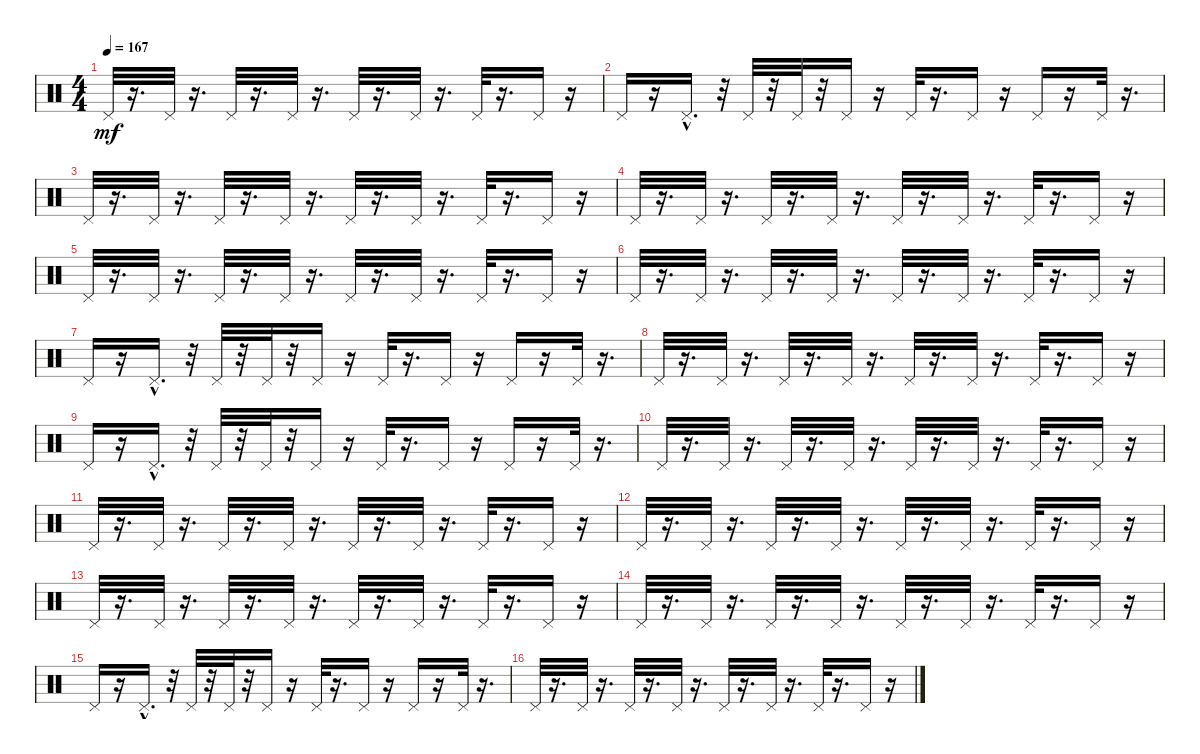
\track "" {instrument percussion}
\staff {score}
\articulation defaults
\ts (4 4)
\tempo 167
\clef neutral
\ks c "Pedal Hi-Hat (hit)".32{dy mf}
r.16{d} "Pedal Hi-Hat (hit)".32 r.16{d} "Pedal Hi-Hat (hit)".32 r.16{d} "Pedal Hi-Hat (hit)".32 r.16{d} "Pedal Hi-Hat (hit)".32 r.16{d} "Pedal Hi-Hat (hit)".32 r.16{d} "Pedal Hi-Hat (hit)".32 r.16{d} "Pedal Hi-Hat (hit)".16 r.16 |
"Pedal Hi-Hat (hit)".16 r.16 "Pedal Hi-Hat (hit)"{hac}.16{d} r.32 "Pedal Hi-Hat (hit)".32 r.32 "Pedal Hi-Hat (hit)".32 r.32 "Pedal Hi-Hat (hit)".16 r.16 "Pedal Hi-Hat (hit)".32 r.16{d} "Pedal Hi-Hat (hit)".16 r.16 "Pedal Hi-Hat (hit)".16 r.16 "Pedal Hi-Hat (hit)".32 r.16{d} |
"Pedal Hi-Hat (hit)".32 r.16{d} "Pedal Hi-Hat (hit)".32 r.16{d} "Pedal Hi-Hat (hit)".32 r.16{d} "Pedal Hi-Hat (hit)".32 r.16{d} "Pedal Hi-Hat (hit)".32 r.16{d} "Pedal Hi-Hat (hit)".32 r.16{d} "Pedal Hi-Hat (hit)".32 r.16{d} "Pedal Hi-Hat (hit)".16 r.16 |
"Pedal Hi-Hat (hit)".32 r.16{d} "Pedal Hi-Hat (hit)".32 r.16{d} "Pedal Hi-Hat (hit)".32 r.16{d} "Pedal Hi-Hat (hit)".32 r.16{d} "Pedal Hi-Hat (hit)".32 r.16{d} "Pedal Hi-Hat (hit)".32 r.16{d} "Pedal Hi-Hat (hit)".32 r.16{d} "Pedal Hi-Hat (hit)".16 r.16 |
"Pedal Hi-Hat (hit)".32 r.16{d} "Pedal Hi-Hat (hit)".32 r.16{d} "Pedal Hi-Hat (hit)".32 r.16{d} "Pedal Hi-Hat (hit)".32 r.16{d} "Pedal Hi-Hat (hit)".32 r.16{d} "Pedal Hi-Hat (hit)".32 r.16{d} "Pedal Hi-Hat (hit)".32 r.16{d} "Pedal Hi-Hat (hit)".16 r.16 |
"Pedal Hi-Hat (hit)".32 r.16{d} "Pedal Hi-Hat (hit)".32 r.16{d} "Pedal Hi-Hat (hit)".32 r.16{d} "Pedal Hi-Hat (hit)".32 r.16{d} "Pedal Hi-Hat (hit)".32 r.16{d} "Pedal Hi-Hat (hit)".32 r.16{d} "Pedal Hi-Hat (hit)".32 r.16{d} "Pedal Hi-Hat (hit)".16 r.16 |
"Pedal Hi-Hat (hit)".16 r.16 "Pedal Hi-Hat (hit)"{hac}.16{d} r.32 "Pedal Hi-Hat (hit)".32 r.32 "Pedal Hi-Hat (hit)".32 r.32 "Pedal Hi-Hat (hit)".16 r.16 "Pedal Hi-Hat (hit)".32 r.16{d} "Pedal Hi-Hat (hit)".16 r.16 "Pedal Hi-Hat (hit)".16 r.16 "Pedal Hi-Hat (hit)".32 r.16{d} |
"Pedal Hi-Hat (hit)".32 r.16{d} "Pedal Hi-Hat (hit)".32 r.16{d} "Pedal Hi-Hat (hit)".32 r.16{d} "Pedal Hi-Hat (hit)".32 r.16{d} "Pedal Hi-Hat (hit)".32 r.16{d} "Pedal Hi-Hat (hit)".32 r.16{d} "Pedal Hi-Hat (hit)".32 r.16{d} "Pedal Hi-Hat (hit)".16 r.16 |
"Pedal Hi-Hat (hit)".16 r.16 "Pedal Hi-Hat (hit)"{hac}.16{d} r.32 "Pedal Hi-Hat (hit)".32 r.32 "Pedal Hi-Hat (hit)".32 r.32 "Pedal Hi-Hat (hit)".16 r.16 "Pedal Hi-Hat (hit)".32 r.16{d} "Pedal Hi-Hat (hit)".16 r.16 "Pedal Hi-Hat (hit)".16 r.16 "Pedal Hi-Hat (hit)".32 r.16{d} |
"Pedal Hi-Hat (hit)".32 r.16{d} "Pedal Hi-Hat (hit)".32 r.16{d} "Pedal Hi-Hat (hit)".32 r.16{d} "Pedal Hi-Hat (hit)".32 r.16{d} "Pedal Hi-Hat (hit)".32 r.16{d} "Pedal Hi-Hat (hit)".32 r.16{d} "Pedal Hi-Hat (hit)".32 r.16{d} "Pedal Hi-Hat (hit)".16 r.16 |
"Pedal Hi-Hat (hit)".32 r.16{d} "Pedal Hi-Hat (hit)".32 r.16{d} "Pedal Hi-Hat (hit)".32 r.16{d} "Pedal Hi-Hat (hit)".32 r.16{d} "Pedal Hi-Hat (hit)".32 r.16{d} "Pedal Hi-Hat (hit)".32 r.16{d} "Pedal Hi-Hat (hit)".32 r.16{d} "Pedal Hi-Hat (hit)".16 r.16 |
"Pedal Hi-Hat (hit)".32 r.16{d} "Pedal Hi-Hat (hit)".32 r.16{d} "Pedal Hi-Hat (hit)".32 r.16{d} "Pedal Hi-Hat (hit)".32 r.16{d} "Pedal Hi-Hat (hit)".32 r.16{d} "Pedal Hi-Hat (hit)".32 r.16{d} "Pedal Hi-Hat (hit)".32 r.16{d} "Pedal Hi-Hat (hit)".16 r.16 |
"Pedal Hi-Hat (hit)".32 r.16{d} "Pedal Hi-Hat (hit)".32 r.16{d} "Pedal Hi-Hat (hit)".32 r.16{d} "Pedal Hi-Hat (hit)".32 r.16{d} "Pedal Hi-Hat (hit)".32 r.16{d} "Pedal Hi-Hat (hit)".32 r.16{d} "Pedal Hi-Hat (hit)".32 r.16{d} "Pedal Hi-Hat (hit)".16 r.16 |
"Pedal Hi-Hat (hit)".32 r.16{d} "Pedal Hi-Hat (hit)".32 r.16{d} "Pedal Hi-Hat (hit)".32 r.16{d} "Pedal Hi-Hat (hit)".32 r.16{d} "Pedal Hi-Hat (hit)".32 r.16{d} "Pedal Hi-Hat (hit)".32 r.16{d} "Pedal Hi-Hat (hit)".32 r.16{d} "Pedal Hi-Hat (hit)".16 r.16 |
"Pedal Hi-Hat (hit)".16 r.16 "Pedal Hi-Hat (hit)"{hac}.16{d} r.32 "Pedal Hi-Hat (hit)".32 r.32 "Pedal Hi-Hat (hit)".32 r.32 "Pedal Hi-Hat (hit)".16 r.16 "Pedal Hi-Hat (hit)".32 r.16{d} "Pedal Hi-Hat (hit)".16 r.16 "Pedal Hi-Hat (hit)".16 r.16 "Pedal Hi-Hat (hit)".32 r.16{d} |
"Pedal Hi-Hat (hit)".32 r.16{d} "Pedal Hi-Hat (hit)".32 r.16{d} "Pedal Hi-Hat (hit)".32 r.16{d} "Pedal Hi-Hat (hit)".32 r.16{d} "Pedal Hi-Hat (hit)".32 r.16{d} "Pedal Hi-Hat (hit)".32 r.16{d} "Pedal Hi-Hat (hit)".32 r.16{d} "Pedal Hi-Hat (hit)".16 r.16
